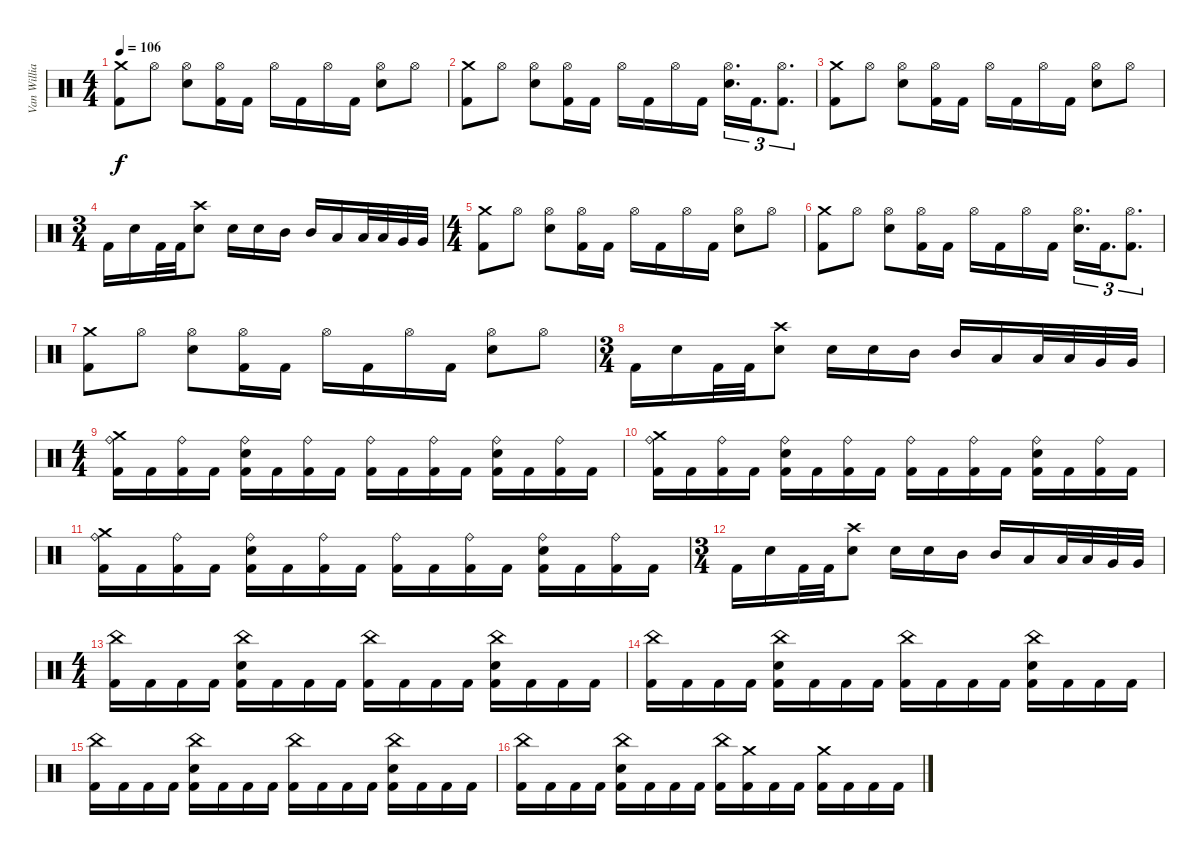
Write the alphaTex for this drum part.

\track ("Van Williams" "Van Willia") {instrument percussion}
\staff {score}
\articulation defaults
\ts (4 4)
\tempo 106
\clef neutral
\ks c
("Crash medium (hit)" "Kick (hit) 2").8{dy f} "Hi-Hat (open)".8 ("Electric Snare (hit)" "Hi-Hat (open)").8 ("Kick (hit) 2" "Hi-Hat (open)").16 "Kick (hit) 2".16 "Hi-Hat (open)".16 "Kick (hit) 2".16 "Hi-Hat (open)".16 "Kick (hit) 2".16 ("Electric Snare (hit)" "Hi-Hat (open)").8 "Hi-Hat (open)".8 |
("Crash medium (hit)" "Kick (hit) 2").8 "Hi-Hat (open)".8 ("Electric Snare (hit)" "Hi-Hat (open)").8 ("Kick (hit) 2" "Hi-Hat (open)").16 "Kick (hit) 2".16 "Hi-Hat (open)".16 "Kick (hit) 2".16 "Hi-Hat (open)".16 "Kick (hit) 2".16 ("Electric Snare (hit)" "Hi-Hat (open)").16{d tu (3 2)} "Kick (hit) 2".16{d tu (3 2)} ("Kick (hit) 2" "Hi-Hat (open)").8{d tu (3 2)} |
("Crash medium (hit)" "Kick (hit) 2").8 "Hi-Hat (open)".8 ("Electric Snare (hit)" "Hi-Hat (open)").8 ("Kick (hit) 2" "Hi-Hat (open)").16 "Kick (hit) 2".16 "Hi-Hat (open)".16 "Kick (hit) 2".16 "Hi-Hat (open)".16 "Kick (hit) 2".16 ("Electric Snare (hit)" "Hi-Hat (open)").8 "Hi-Hat (open)".8 |
\ts (3 4)
"Kick (hit) 2".16 "Electric Snare (hit)".16 "Kick (hit) 2".32 "Kick (hit) 2".32 ("Crash high (hit)" "Electric Snare (hit)").8 "Electric Snare (hit)".16 "Electric Snare (hit)".16 "Mid Tom (hit)".16 "Mid Tom (hit)".16 "Low Tom (hit)".16 "Low Tom (hit)".32 "Low Tom (hit)".32 "Very Low Tom (hit)".32 "Very Low Tom (hit)".32 |
\ts (4 4)
("Crash medium (hit)" "Kick (hit) 2").8 "Hi-Hat (open)".8 ("Electric Snare (hit)" "Hi-Hat (open)").8 ("Kick (hit) 2" "Hi-Hat (open)").16 "Kick (hit) 2".16 "Hi-Hat (open)".16 "Kick (hit) 2".16 "Hi-Hat (open)".16 "Kick (hit) 2".16 ("Electric Snare (hit)" "Hi-Hat (open)").8 "Hi-Hat (open)".8 |
("Crash medium (hit)" "Kick (hit) 2").8 "Hi-Hat (open)".8 ("Electric Snare (hit)" "Hi-Hat (open)").8 ("Kick (hit) 2" "Hi-Hat (open)").16 "Kick (hit) 2".16 "Hi-Hat (open)".16 "Kick (hit) 2".16 "Hi-Hat (open)".16 "Kick (hit) 2".16 ("Electric Snare (hit)" "Hi-Hat (open)").16{d tu (3 2)} "Kick (hit) 2".16{d tu (3 2)} ("Kick (hit) 2" "Hi-Hat (open)").8{d tu (3 2)} |
("Crash medium (hit)" "Kick (hit) 2").8 "Hi-Hat (open)".8 ("Electric Snare (hit)" "Hi-Hat (open)").8 ("Kick (hit) 2" "Hi-Hat (open)").16 "Kick (hit) 2".16 "Hi-Hat (open)".16 "Kick (hit) 2".16 "Hi-Hat (open)".16 "Kick (hit) 2".16 ("Electric Snare (hit)" "Hi-Hat (open)").8 "Hi-Hat (open)".8 |
\ts (3 4)
"Kick (hit) 2".16 "Electric Snare (hit)".16 "Kick (hit) 2".32 "Kick (hit) 2".32 ("Crash high (hit)" "Electric Snare (hit)").8 "Electric Snare (hit)".16 "Electric Snare (hit)".16 "Mid Tom (hit)".16 "Mid Tom (hit)".16 "Low Tom (hit)".16 "Low Tom (hit)".32 "Low Tom (hit)".32 "Very Low Tom (hit)".32 "Very Low Tom (hit)".32 |
\ts (4 4)
("Crash medium (hit)" "Kick (hit) 2" "Ride (bell)").16 "Kick (hit) 2".16 ("Kick (hit) 2" "Ride (bell)").16 "Kick (hit) 2".16 ("Electric Snare (hit)" "Kick (hit) 2" "Ride (bell)").16 "Kick (hit) 2".16 ("Kick (hit) 2" "Ride (bell)").16 "Kick (hit) 2".16 ("Kick (hit) 2" "Ride (bell)").16 "Kick (hit) 2".16 ("Kick (hit) 2" "Ride (bell)").16 "Kick (hit) 2".16 ("Electric Snare (hit)" "Kick (hit) 2" "Ride (bell)").16 "Kick (hit) 2".16 ("Kick (hit) 2" "Ride (bell)").16 "Kick (hit) 2".16 |
("Crash medium (hit)" "Kick (hit) 2" "Ride (bell)").16 "Kick (hit) 2".16 ("Kick (hit) 2" "Ride (bell)").16 "Kick (hit) 2".16 ("Electric Snare (hit)" "Kick (hit) 2" "Ride (bell)").16 "Kick (hit) 2".16 ("Kick (hit) 2" "Ride (bell)").16 "Kick (hit) 2".16 ("Kick (hit) 2" "Ride (bell)").16 "Kick (hit) 2".16 ("Kick (hit) 2" "Ride (bell)").16 "Kick (hit) 2".16 ("Electric Snare (hit)" "Kick (hit) 2" "Ride (bell)").16 "Kick (hit) 2".16 ("Kick (hit) 2" "Ride (bell)").16 "Kick (hit) 2".16 |
("Crash medium (hit)" "Kick (hit) 2" "Ride (bell)").16 "Kick (hit) 2".16 ("Kick (hit) 2" "Ride (bell)").16 "Kick (hit) 2".16 ("Electric Snare (hit)" "Kick (hit) 2" "Ride (bell)").16 "Kick (hit) 2".16 ("Kick (hit) 2" "Ride (bell)").16 "Kick (hit) 2".16 ("Kick (hit) 2" "Ride (bell)").16 "Kick (hit) 2".16 ("Kick (hit) 2" "Ride (bell)").16 "Kick (hit) 2".16 ("Electric Snare (hit)" "Kick (hit) 2" "Ride (bell)").16 "Kick (hit) 2".16 ("Kick (hit) 2" "Ride (bell)").16 "Kick (hit) 2".16 |
\ts (3 4)
"Kick (hit) 2".16 "Electric Snare (hit)".16 "Kick (hit) 2".32 "Kick (hit) 2".32 ("Crash high (hit)" "Electric Snare (hit)").8 "Electric Snare (hit)".16 "Electric Snare (hit)".16 "Mid Tom (hit)".16 "Mid Tom (hit)".16 "Low Tom (hit)".16 "Low Tom (hit)".32 "Low Tom (hit)".32 "Very Low Tom (hit)".32 "Very Low Tom (hit)".32 |
\ts (4 4)
("Kick (hit) 2" "China (hit)").16 "Kick (hit) 2".16 "Kick (hit) 2".16 "Kick (hit) 2".16 ("Kick (hit) 2" "China (hit)" "Electric Snare (hit)").16 "Kick (hit) 2".16 "Kick (hit) 2".16 "Kick (hit) 2".16 ("Kick (hit) 2" "China (hit)").16 "Kick (hit) 2".16 "Kick (hit) 2".16 "Kick (hit) 2".16 ("Kick (hit) 2" "China (hit)" "Electric Snare (hit)").16 "Kick (hit) 2".16 "Kick (hit) 2".16 "Kick (hit) 2".16 |
("Kick (hit) 2" "China (hit)").16 "Kick (hit) 2".16 "Kick (hit) 2".16 "Kick (hit) 2".16 ("Kick (hit) 2" "China (hit)" "Electric Snare (hit)").16 "Kick (hit) 2".16 "Kick (hit) 2".16 "Kick (hit) 2".16 ("Kick (hit) 2" "China (hit)").16 "Kick (hit) 2".16 "Kick (hit) 2".16 "Kick (hit) 2".16 ("Kick (hit) 2" "China (hit)" "Electric Snare (hit)").16 "Kick (hit) 2".16 "Kick (hit) 2".16 "Kick (hit) 2".16 |
("Kick (hit) 2" "China (hit)").16 "Kick (hit) 2".16 "Kick (hit) 2".16 "Kick (hit) 2".16 ("Kick (hit) 2" "China (hit)" "Electric Snare (hit)").16 "Kick (hit) 2".16 "Kick (hit) 2".16 "Kick (hit) 2".16 ("Kick (hit) 2" "China (hit)").16 "Kick (hit) 2".16 "Kick (hit) 2".16 "Kick (hit) 2".16 ("Kick (hit) 2" "China (hit)" "Electric Snare (hit)").16 "Kick (hit) 2".16 "Kick (hit) 2".16 "Kick (hit) 2".16 |
("Kick (hit) 2" "China (hit)").16 "Kick (hit) 2".16 "Kick (hit) 2".16 "Kick (hit) 2".16 ("Kick (hit) 2" "China (hit)" "Electric Snare (hit)").16 "Kick (hit) 2".16 "Kick (hit) 2".16 "Kick (hit) 2".16 ("Kick (hit) 2" "China (hit)").16 ("Kick (hit) 2" "Crash medium (hit)").16 "Kick (hit) 2".16 "Kick (hit) 2".16 ("Kick (hit) 2" "Crash medium (hit)").16 "Kick (hit) 2".16 "Kick (hit) 2".16 "Kick (hit) 2".16
